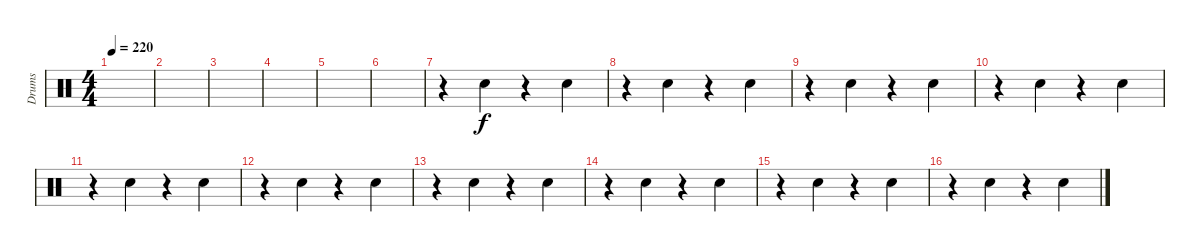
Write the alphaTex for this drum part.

\track ("Drums" "Drums") {instrument percussion}
\staff {score}
\articulation defaults
\ts (4 4)
\tempo 220
\clef neutral
\ks c
|
|
|
|
|
|
r.4 "Snare (hit) 2".4 r.4 "Snare (hit) 2".4 |
r.4 "Snare (hit) 2".4 r.4 "Snare (hit) 2".4 |
r.4 "Snare (hit) 2".4 r.4 "Snare (hit) 2".4 |
r.4 "Snare (hit) 2".4 r.4 "Snare (hit) 2".4 |
r.4 "Snare (hit) 2".4 r.4 "Snare (hit) 2".4 |
r.4 "Snare (hit) 2".4 r.4 "Snare (hit) 2".4 |
r.4 "Snare (hit) 2".4 r.4 "Snare (hit) 2".4 |
r.4 "Snare (hit) 2".4 r.4 "Snare (hit) 2".4 |
r.4 "Snare (hit) 2".4 r.4 "Snare (hit) 2".4 |
r.4 "Snare (hit) 2".4 r.4 "Snare (hit) 2".4
